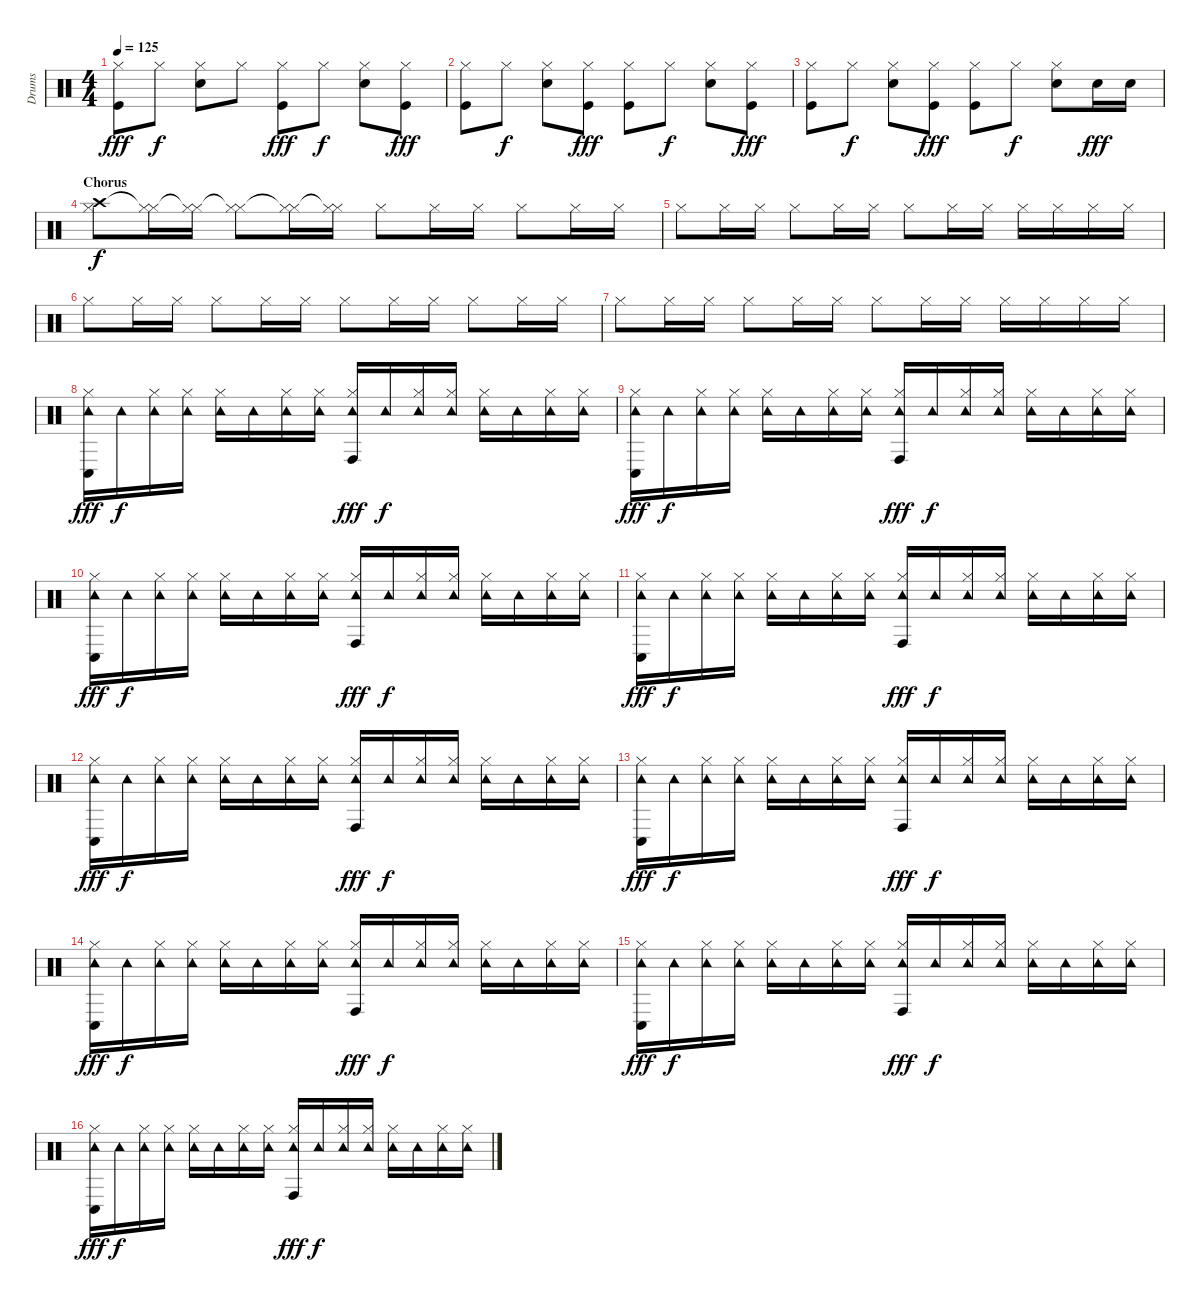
\track ("Drums" "Drums") {instrument percussion}
\staff {score}
\articulation defaults
\ts (4 4)
\tempo 125
\clef neutral
\ks c
("Hi-Hat (closed)" "Kick (hit)").8{dy fff} "Hi-Hat (closed)".8{dy f} ("Hi-Hat (closed)" "Snare (hit) 2").8 "Hi-Hat (closed)".8 ("Hi-Hat (closed)" "Kick (hit)").8{dy fff} "Hi-Hat (closed)".8{dy f} ("Hi-Hat (closed)" "Snare (hit) 2").8 ("Hi-Hat (closed)" "Kick (hit)").8{dy fff} |
("Hi-Hat (closed)" "Kick (hit)").8 "Hi-Hat (closed)".8{dy f} ("Hi-Hat (closed)" "Snare (hit) 2").8 ("Hi-Hat (closed)" "Kick (hit)").8{dy fff} ("Hi-Hat (closed)" "Kick (hit)").8 "Hi-Hat (closed)".8{dy f} ("Hi-Hat (closed)" "Snare (hit) 2").8 ("Hi-Hat (closed)" "Kick (hit)").8{dy fff} |
("Hi-Hat (closed)" "Kick (hit)").8 "Hi-Hat (closed)".8{dy f} ("Hi-Hat (closed)" "Snare (hit) 2").8 ("Hi-Hat (closed)" "Kick (hit)").8{dy fff} ("Hi-Hat (closed)" "Kick (hit)").8 "Hi-Hat (closed)".8{dy f} ("Hi-Hat (closed)" "Snare (hit) 2").8 "Snare (hit) 2".16{dy fff} "Snare (hit) 2".16 |
\section ("" "Chorus")
("Crash high (hit)" "Hi-Hat (closed)").8{dy f} ("Hi-Hat (closed)"{t} "Hi-Hat (closed)").16 ("Hi-Hat (closed)"{t} "Hi-Hat (closed)").16 ("Hi-Hat (closed)"{t} "Hi-Hat (closed)").8 ("Hi-Hat (closed)"{t} "Hi-Hat (closed)").16 ("Hi-Hat (closed)"{t} "Hi-Hat (closed)").16 "Hi-Hat (closed)".8 "Hi-Hat (closed)".16 "Hi-Hat (closed)".16 "Hi-Hat (closed)".8 "Hi-Hat (closed)".16 "Hi-Hat (closed)".16 |
"Hi-Hat (closed)".8 "Hi-Hat (closed)".16 "Hi-Hat (closed)".16 "Hi-Hat (closed)".8 "Hi-Hat (closed)".16 "Hi-Hat (closed)".16 "Hi-Hat (closed)".8 "Hi-Hat (closed)".16 "Hi-Hat (closed)".16 "Hi-Hat (closed)".16 "Hi-Hat (closed)".16 "Hi-Hat (closed)".16 "Hi-Hat (closed)".16 |
"Hi-Hat (closed)".8 "Hi-Hat (closed)".16 "Hi-Hat (closed)".16 "Hi-Hat (closed)".8 "Hi-Hat (closed)".16 "Hi-Hat (closed)".16 "Hi-Hat (closed)".8 "Hi-Hat (closed)".16 "Hi-Hat (closed)".16 "Hi-Hat (closed)".8 "Hi-Hat (closed)".16 "Hi-Hat (closed)".16 |
"Hi-Hat (closed)".8 "Hi-Hat (closed)".16 "Hi-Hat (closed)".16 "Hi-Hat (closed)".8 "Hi-Hat (closed)".16 "Hi-Hat (closed)".16 "Hi-Hat (closed)".8 "Hi-Hat (closed)".16 "Hi-Hat (closed)".16 "Hi-Hat (closed)".16 "Hi-Hat (closed)".16 "Hi-Hat (closed)".16 "Hi-Hat (closed)".16 |
("Conga low (hit)" "Tambourine (hit)" "Hi-Hat (closed)").16{dy fff} "Tambourine (hit)".16{dy f} ("Tambourine (hit)" "Hi-Hat (closed)").16 ("Tambourine (hit)" "Hi-Hat (closed)").16 ("Tambourine (hit)" "Hi-Hat (closed)").16 "Tambourine (hit)".16 ("Tambourine (hit)" "Hi-Hat (closed)").16 ("Tambourine (hit)" "Hi-Hat (closed)").16 ("Conga high (hit)" "Tambourine (hit)" "Hi-Hat (closed)").16{dy fff} "Tambourine (hit)".16{dy f} ("Tambourine (hit)" "Hi-Hat (closed)").16 ("Tambourine (hit)" "Hi-Hat (closed)").16 ("Tambourine (hit)" "Hi-Hat (closed)").16 "Tambourine (hit)".16 ("Tambourine (hit)" "Hi-Hat (closed)").16 ("Tambourine (hit)" "Hi-Hat (closed)").16 |
("Conga low (hit)" "Tambourine (hit)" "Hi-Hat (closed)").16{dy fff} "Tambourine (hit)".16{dy f} ("Tambourine (hit)" "Hi-Hat (closed)").16 ("Tambourine (hit)" "Hi-Hat (closed)").16 ("Tambourine (hit)" "Hi-Hat (closed)").16 "Tambourine (hit)".16 ("Tambourine (hit)" "Hi-Hat (closed)").16 ("Tambourine (hit)" "Hi-Hat (closed)").16 ("Conga high (hit)" "Tambourine (hit)" "Hi-Hat (closed)").16{dy fff} "Tambourine (hit)".16{dy f} ("Tambourine (hit)" "Hi-Hat (closed)").16 ("Tambourine (hit)" "Hi-Hat (closed)").16 ("Tambourine (hit)" "Hi-Hat (closed)").16 "Tambourine (hit)".16 ("Tambourine (hit)" "Hi-Hat (closed)").16 ("Tambourine (hit)" "Hi-Hat (closed)").16 |
("Conga low (hit)" "Tambourine (hit)" "Hi-Hat (closed)").16{dy fff} "Tambourine (hit)".16{dy f} ("Tambourine (hit)" "Hi-Hat (closed)").16 ("Tambourine (hit)" "Hi-Hat (closed)").16 ("Tambourine (hit)" "Hi-Hat (closed)").16 "Tambourine (hit)".16 ("Tambourine (hit)" "Hi-Hat (closed)").16 ("Tambourine (hit)" "Hi-Hat (closed)").16 ("Conga high (hit)" "Tambourine (hit)" "Hi-Hat (closed)").16{dy fff} "Tambourine (hit)".16{dy f} ("Tambourine (hit)" "Hi-Hat (closed)").16 ("Tambourine (hit)" "Hi-Hat (closed)").16 ("Tambourine (hit)" "Hi-Hat (closed)").16 "Tambourine (hit)".16 ("Tambourine (hit)" "Hi-Hat (closed)").16 ("Tambourine (hit)" "Hi-Hat (closed)").16 |
("Conga low (hit)" "Tambourine (hit)" "Hi-Hat (closed)").16{dy fff} "Tambourine (hit)".16{dy f} ("Tambourine (hit)" "Hi-Hat (closed)").16 ("Tambourine (hit)" "Hi-Hat (closed)").16 ("Tambourine (hit)" "Hi-Hat (closed)").16 "Tambourine (hit)".16 ("Tambourine (hit)" "Hi-Hat (closed)").16 ("Tambourine (hit)" "Hi-Hat (closed)").16 ("Conga high (hit)" "Tambourine (hit)" "Hi-Hat (closed)").16{dy fff} "Tambourine (hit)".16{dy f} ("Tambourine (hit)" "Hi-Hat (closed)").16 ("Tambourine (hit)" "Hi-Hat (closed)").16 ("Tambourine (hit)" "Hi-Hat (closed)").16 "Tambourine (hit)".16 ("Tambourine (hit)" "Hi-Hat (closed)").16 ("Tambourine (hit)" "Hi-Hat (closed)").16 |
("Conga low (hit)" "Tambourine (hit)" "Hi-Hat (closed)").16{dy fff} "Tambourine (hit)".16{dy f} ("Tambourine (hit)" "Hi-Hat (closed)").16 ("Tambourine (hit)" "Hi-Hat (closed)").16 ("Tambourine (hit)" "Hi-Hat (closed)").16 "Tambourine (hit)".16 ("Tambourine (hit)" "Hi-Hat (closed)").16 ("Tambourine (hit)" "Hi-Hat (closed)").16 ("Conga high (hit)" "Tambourine (hit)" "Hi-Hat (closed)").16{dy fff} "Tambourine (hit)".16{dy f} ("Tambourine (hit)" "Hi-Hat (closed)").16 ("Tambourine (hit)" "Hi-Hat (closed)").16 ("Tambourine (hit)" "Hi-Hat (closed)").16 "Tambourine (hit)".16 ("Tambourine (hit)" "Hi-Hat (closed)").16 ("Tambourine (hit)" "Hi-Hat (closed)").16 |
("Conga low (hit)" "Tambourine (hit)" "Hi-Hat (closed)").16{dy fff} "Tambourine (hit)".16{dy f} ("Tambourine (hit)" "Hi-Hat (closed)").16 ("Tambourine (hit)" "Hi-Hat (closed)").16 ("Tambourine (hit)" "Hi-Hat (closed)").16 "Tambourine (hit)".16 ("Tambourine (hit)" "Hi-Hat (closed)").16 ("Tambourine (hit)" "Hi-Hat (closed)").16 ("Conga high (hit)" "Tambourine (hit)" "Hi-Hat (closed)").16{dy fff} "Tambourine (hit)".16{dy f} ("Tambourine (hit)" "Hi-Hat (closed)").16 ("Tambourine (hit)" "Hi-Hat (closed)").16 ("Tambourine (hit)" "Hi-Hat (closed)").16 "Tambourine (hit)".16 ("Tambourine (hit)" "Hi-Hat (closed)").16 ("Tambourine (hit)" "Hi-Hat (closed)").16 |
("Conga low (hit)" "Tambourine (hit)" "Hi-Hat (closed)").16{dy fff} "Tambourine (hit)".16{dy f} ("Tambourine (hit)" "Hi-Hat (closed)").16 ("Tambourine (hit)" "Hi-Hat (closed)").16 ("Tambourine (hit)" "Hi-Hat (closed)").16 "Tambourine (hit)".16 ("Tambourine (hit)" "Hi-Hat (closed)").16 ("Tambourine (hit)" "Hi-Hat (closed)").16 ("Conga high (hit)" "Tambourine (hit)" "Hi-Hat (closed)").16{dy fff} "Tambourine (hit)".16{dy f} ("Tambourine (hit)" "Hi-Hat (closed)").16 ("Tambourine (hit)" "Hi-Hat (closed)").16 ("Tambourine (hit)" "Hi-Hat (closed)").16 "Tambourine (hit)".16 ("Tambourine (hit)" "Hi-Hat (closed)").16 ("Tambourine (hit)" "Hi-Hat (closed)").16 |
("Conga low (hit)" "Tambourine (hit)" "Hi-Hat (closed)").16{dy fff} "Tambourine (hit)".16{dy f} ("Tambourine (hit)" "Hi-Hat (closed)").16 ("Tambourine (hit)" "Hi-Hat (closed)").16 ("Tambourine (hit)" "Hi-Hat (closed)").16 "Tambourine (hit)".16 ("Tambourine (hit)" "Hi-Hat (closed)").16 ("Tambourine (hit)" "Hi-Hat (closed)").16 ("Conga high (hit)" "Tambourine (hit)" "Hi-Hat (closed)").16{dy fff} "Tambourine (hit)".16{dy f} ("Tambourine (hit)" "Hi-Hat (closed)").16 ("Tambourine (hit)" "Hi-Hat (closed)").16 ("Tambourine (hit)" "Hi-Hat (closed)").16 "Tambourine (hit)".16 ("Tambourine (hit)" "Hi-Hat (closed)").16 ("Tambourine (hit)" "Hi-Hat (closed)").16 |
("Conga low (hit)" "Tambourine (hit)" "Hi-Hat (closed)").16{dy fff} "Tambourine (hit)".16{dy f} ("Tambourine (hit)" "Hi-Hat (closed)").16 ("Tambourine (hit)" "Hi-Hat (closed)").16 ("Tambourine (hit)" "Hi-Hat (closed)").16 "Tambourine (hit)".16 ("Tambourine (hit)" "Hi-Hat (closed)").16 ("Tambourine (hit)" "Hi-Hat (closed)").16 ("Conga high (hit)" "Tambourine (hit)" "Hi-Hat (closed)").16{dy fff} "Tambourine (hit)".16{dy f} ("Tambourine (hit)" "Hi-Hat (closed)").16 ("Tambourine (hit)" "Hi-Hat (closed)").16 ("Tambourine (hit)" "Hi-Hat (closed)").16 "Tambourine (hit)".16 ("Tambourine (hit)" "Hi-Hat (closed)").16 ("Tambourine (hit)" "Hi-Hat (closed)").16
